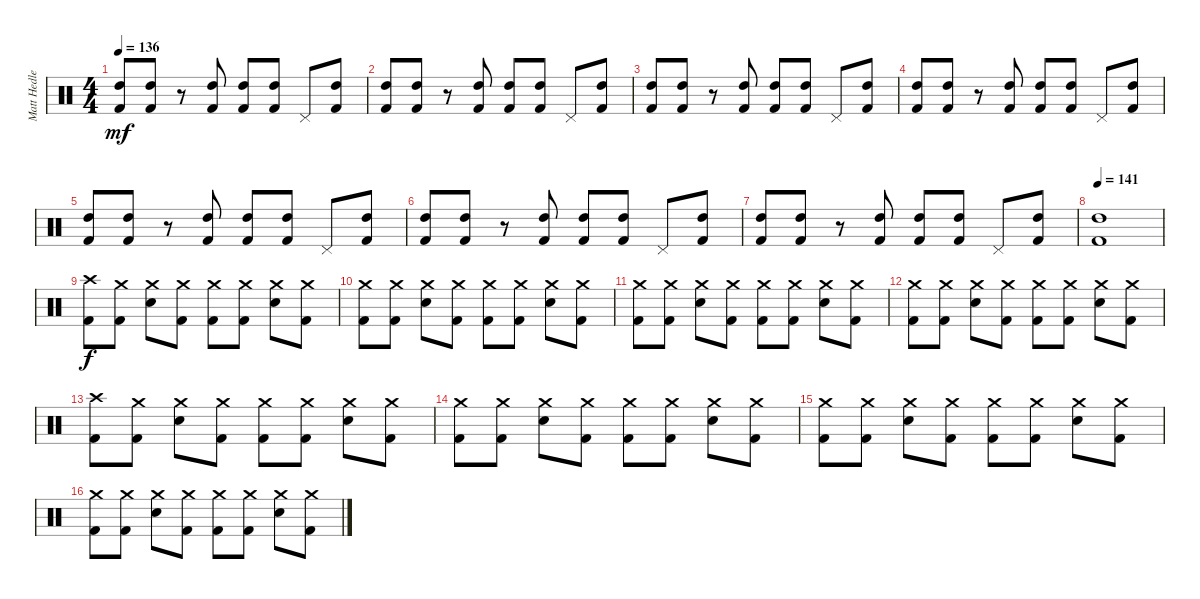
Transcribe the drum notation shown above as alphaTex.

\track ("Matt Hedlers" "Matt Hedle") {instrument percussion}
\staff {score}
\articulation defaults
\ts (4 4)
\tempo 136
\clef neutral
\ks c
("High Tom (hit)" "Kick (hit) 2").8{dy mf} ("High Tom (hit)" "Kick (hit) 2").8 r.8 ("High Tom (hit)" "Kick (hit) 2").8 ("High Tom (hit)" "Kick (hit) 2").8 ("High Tom (hit)" "Kick (hit) 2").8 "Pedal Hi-Hat (hit)".8 ("High Tom (hit)" "Kick (hit) 2").8 |
("High Tom (hit)" "Kick (hit) 2").8 ("High Tom (hit)" "Kick (hit) 2").8 r.8 ("High Tom (hit)" "Kick (hit) 2").8 ("High Tom (hit)" "Kick (hit) 2").8 ("High Tom (hit)" "Kick (hit) 2").8 "Pedal Hi-Hat (hit)".8 ("High Tom (hit)" "Kick (hit) 2").8 |
("High Tom (hit)" "Kick (hit) 2").8 ("High Tom (hit)" "Kick (hit) 2").8 r.8 ("High Tom (hit)" "Kick (hit) 2").8 ("High Tom (hit)" "Kick (hit) 2").8 ("High Tom (hit)" "Kick (hit) 2").8 "Pedal Hi-Hat (hit)".8 ("High Tom (hit)" "Kick (hit) 2").8 |
("High Tom (hit)" "Kick (hit) 2").8 ("High Tom (hit)" "Kick (hit) 2").8 r.8 ("High Tom (hit)" "Kick (hit) 2").8 ("High Tom (hit)" "Kick (hit) 2").8 ("High Tom (hit)" "Kick (hit) 2").8 "Pedal Hi-Hat (hit)".8 ("High Tom (hit)" "Kick (hit) 2").8 |
("High Tom (hit)" "Kick (hit) 2").8 ("High Tom (hit)" "Kick (hit) 2").8 r.8 ("High Tom (hit)" "Kick (hit) 2").8 ("High Tom (hit)" "Kick (hit) 2").8 ("High Tom (hit)" "Kick (hit) 2").8 "Pedal Hi-Hat (hit)".8 ("High Tom (hit)" "Kick (hit) 2").8 |
("High Tom (hit)" "Kick (hit) 2").8 ("High Tom (hit)" "Kick (hit) 2").8 r.8 ("High Tom (hit)" "Kick (hit) 2").8 ("High Tom (hit)" "Kick (hit) 2").8 ("High Tom (hit)" "Kick (hit) 2").8 "Pedal Hi-Hat (hit)".8 ("High Tom (hit)" "Kick (hit) 2").8 |
("High Tom (hit)" "Kick (hit) 2").8 ("High Tom (hit)" "Kick (hit) 2").8 r.8 ("High Tom (hit)" "Kick (hit) 2").8 ("High Tom (hit)" "Kick (hit) 2").8 ("High Tom (hit)" "Kick (hit) 2").8 "Pedal Hi-Hat (hit)".8 ("High Tom (hit)" "Kick (hit) 2").8 |
\tempo 141
("High Tom (hit)" "Kick (hit) 2").1 |
("Crash high (hit)" "Kick (hit) 2").8{dy f} ("Crash medium (hit)" "Kick (hit) 2").8 ("Crash medium (hit)" "Snare (hit) 2").8 ("Crash medium (hit)" "Kick (hit) 2").8 ("Crash medium (hit)" "Kick (hit) 2").8 ("Crash medium (hit)" "Kick (hit) 2").8 ("Crash medium (hit)" "Snare (hit) 2").8 ("Crash medium (hit)" "Kick (hit) 2").8 |
("Crash medium (hit)" "Kick (hit) 2").8 ("Crash medium (hit)" "Kick (hit) 2").8 ("Crash medium (hit)" "Snare (hit) 2").8 ("Crash medium (hit)" "Kick (hit) 2").8 ("Crash medium (hit)" "Kick (hit) 2").8 ("Crash medium (hit)" "Kick (hit) 2").8 ("Crash medium (hit)" "Snare (hit) 2").8 ("Crash medium (hit)" "Kick (hit) 2").8 |
("Crash medium (hit)" "Kick (hit) 2").8 ("Crash medium (hit)" "Kick (hit) 2").8 ("Crash medium (hit)" "Snare (hit) 2").8 ("Crash medium (hit)" "Kick (hit) 2").8 ("Crash medium (hit)" "Kick (hit) 2").8 ("Crash medium (hit)" "Kick (hit) 2").8 ("Crash medium (hit)" "Snare (hit) 2").8 ("Crash medium (hit)" "Kick (hit) 2").8 |
("Crash medium (hit)" "Kick (hit) 2").8 ("Crash medium (hit)" "Kick (hit) 2").8 ("Crash medium (hit)" "Snare (hit) 2").8 ("Crash medium (hit)" "Kick (hit) 2").8 ("Crash medium (hit)" "Kick (hit) 2").8 ("Crash medium (hit)" "Kick (hit) 2").8 ("Crash medium (hit)" "Snare (hit) 2").8 ("Crash medium (hit)" "Kick (hit) 2").8 |
("Crash high (hit)" "Kick (hit) 2").8 ("Crash medium (hit)" "Kick (hit) 2").8 ("Crash medium (hit)" "Snare (hit) 2").8 ("Crash medium (hit)" "Kick (hit) 2").8 ("Crash medium (hit)" "Kick (hit) 2").8 ("Crash medium (hit)" "Kick (hit) 2").8 ("Crash medium (hit)" "Snare (hit) 2").8 ("Crash medium (hit)" "Kick (hit) 2").8 |
("Crash medium (hit)" "Kick (hit) 2").8 ("Crash medium (hit)" "Kick (hit) 2").8 ("Crash medium (hit)" "Snare (hit) 2").8 ("Crash medium (hit)" "Kick (hit) 2").8 ("Crash medium (hit)" "Kick (hit) 2").8 ("Crash medium (hit)" "Kick (hit) 2").8 ("Crash medium (hit)" "Snare (hit) 2").8 ("Crash medium (hit)" "Kick (hit) 2").8 |
("Crash medium (hit)" "Kick (hit) 2").8 ("Crash medium (hit)" "Kick (hit) 2").8 ("Crash medium (hit)" "Snare (hit) 2").8 ("Crash medium (hit)" "Kick (hit) 2").8 ("Crash medium (hit)" "Kick (hit) 2").8 ("Crash medium (hit)" "Kick (hit) 2").8 ("Crash medium (hit)" "Snare (hit) 2").8 ("Crash medium (hit)" "Kick (hit) 2").8 |
("Crash medium (hit)" "Kick (hit) 2").8 ("Crash medium (hit)" "Kick (hit) 2").8 ("Crash medium (hit)" "Snare (hit) 2").8 ("Crash medium (hit)" "Kick (hit) 2").8 ("Crash medium (hit)" "Kick (hit) 2").8 ("Crash medium (hit)" "Kick (hit) 2").8 ("Crash medium (hit)" "Snare (hit) 2").8 ("Crash medium (hit)" "Kick (hit) 2").8
